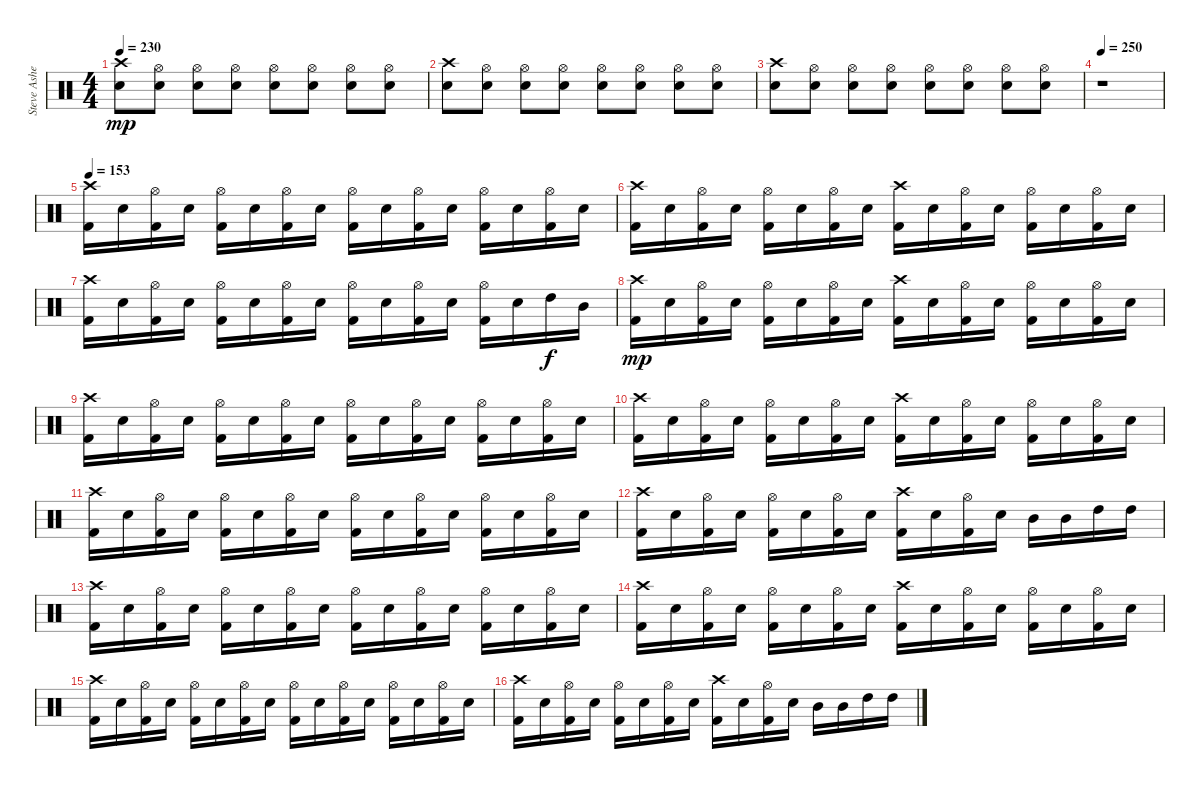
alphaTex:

\track ("Steve Asheim" "Steve Ashe") {instrument percussion}
\staff {score}
\articulation defaults
\ts (4 4)
\tempo 230
\clef neutral
\ks c
("Crash high (hit)" "Electric Snare (hit)").8{dy mp} ("Hi-Hat (open)" "Electric Snare (hit)").8 ("Hi-Hat (open)" "Electric Snare (hit)").8 ("Hi-Hat (open)" "Electric Snare (hit)").8 ("Hi-Hat (open)" "Electric Snare (hit)").8 ("Hi-Hat (open)" "Electric Snare (hit)").8 ("Hi-Hat (open)" "Electric Snare (hit)").8 ("Hi-Hat (open)" "Electric Snare (hit)").8 |
("Crash high (hit)" "Electric Snare (hit)").8 ("Hi-Hat (open)" "Electric Snare (hit)").8 ("Hi-Hat (open)" "Electric Snare (hit)").8 ("Hi-Hat (open)" "Electric Snare (hit)").8 ("Hi-Hat (open)" "Electric Snare (hit)").8 ("Hi-Hat (open)" "Electric Snare (hit)").8 ("Hi-Hat (open)" "Electric Snare (hit)").8 ("Hi-Hat (open)" "Electric Snare (hit)").8 |
("Crash high (hit)" "Electric Snare (hit)").8 ("Hi-Hat (open)" "Electric Snare (hit)").8 ("Hi-Hat (open)" "Electric Snare (hit)").8 ("Hi-Hat (open)" "Electric Snare (hit)").8 ("Hi-Hat (open)" "Electric Snare (hit)").8 ("Hi-Hat (open)" "Electric Snare (hit)").8 ("Hi-Hat (open)" "Electric Snare (hit)").8 ("Hi-Hat (open)" "Electric Snare (hit)").8 |
\tempo 250
r.1 |
\tempo 153
("Crash high (hit)" "Kick (hit) 2").16 "Electric Snare (hit)".16 ("Hi-Hat (open)" "Kick (hit) 2").16 "Electric Snare (hit)".16 ("Hi-Hat (open)" "Kick (hit) 2").16 "Electric Snare (hit)".16 ("Hi-Hat (open)" "Kick (hit) 2").16 "Electric Snare (hit)".16 ("Hi-Hat (open)" "Kick (hit) 2").16 "Electric Snare (hit)".16 ("Hi-Hat (open)" "Kick (hit) 2").16 "Electric Snare (hit)".16 ("Hi-Hat (open)" "Kick (hit) 2").16 "Electric Snare (hit)".16 ("Hi-Hat (open)" "Kick (hit) 2").16 "Electric Snare (hit)".16 |
("Crash high (hit)" "Kick (hit) 2").16 "Electric Snare (hit)".16 ("Hi-Hat (open)" "Kick (hit) 2").16 "Electric Snare (hit)".16 ("Hi-Hat (open)" "Kick (hit) 2").16 "Electric Snare (hit)".16 ("Hi-Hat (open)" "Kick (hit) 2").16 "Electric Snare (hit)".16 ("Crash high (hit)" "Kick (hit) 2").16 "Electric Snare (hit)".16 ("Hi-Hat (open)" "Kick (hit) 2").16 "Electric Snare (hit)".16 ("Hi-Hat (open)" "Kick (hit) 2").16 "Electric Snare (hit)".16 ("Hi-Hat (open)" "Kick (hit) 2").16 "Electric Snare (hit)".16 |
("Crash high (hit)" "Kick (hit) 2").16 "Electric Snare (hit)".16 ("Hi-Hat (open)" "Kick (hit) 2").16 "Electric Snare (hit)".16 ("Hi-Hat (open)" "Kick (hit) 2").16 "Electric Snare (hit)".16 ("Hi-Hat (open)" "Kick (hit) 2").16 "Electric Snare (hit)".16 ("Hi-Hat (open)" "Kick (hit) 2").16 "Electric Snare (hit)".16 ("Hi-Hat (open)" "Kick (hit) 2").16 "Electric Snare (hit)".16 ("Hi-Hat (open)" "Kick (hit) 2").16 "Electric Snare (hit)".16 "High Tom (hit)".16{dy f} "Mid Tom (hit)".16 |
("Crash high (hit)" "Kick (hit) 2").16{dy mp} "Electric Snare (hit)".16 ("Hi-Hat (open)" "Kick (hit) 2").16 "Electric Snare (hit)".16 ("Hi-Hat (open)" "Kick (hit) 2").16 "Electric Snare (hit)".16 ("Hi-Hat (open)" "Kick (hit) 2").16 "Electric Snare (hit)".16 ("Crash high (hit)" "Kick (hit) 2").16 "Electric Snare (hit)".16 ("Hi-Hat (open)" "Kick (hit) 2").16 "Electric Snare (hit)".16 ("Hi-Hat (open)" "Kick (hit) 2").16 "Electric Snare (hit)".16 ("Hi-Hat (open)" "Kick (hit) 2").16 "Electric Snare (hit)".16 |
("Crash high (hit)" "Kick (hit) 2").16 "Electric Snare (hit)".16 ("Hi-Hat (open)" "Kick (hit) 2").16 "Electric Snare (hit)".16 ("Hi-Hat (open)" "Kick (hit) 2").16 "Electric Snare (hit)".16 ("Hi-Hat (open)" "Kick (hit) 2").16 "Electric Snare (hit)".16 ("Hi-Hat (open)" "Kick (hit) 2").16 "Electric Snare (hit)".16 ("Hi-Hat (open)" "Kick (hit) 2").16 "Electric Snare (hit)".16 ("Hi-Hat (open)" "Kick (hit) 2").16 "Electric Snare (hit)".16 ("Hi-Hat (open)" "Kick (hit) 2").16 "Electric Snare (hit)".16 |
("Crash high (hit)" "Kick (hit) 2").16 "Electric Snare (hit)".16 ("Hi-Hat (open)" "Kick (hit) 2").16 "Electric Snare (hit)".16 ("Hi-Hat (open)" "Kick (hit) 2").16 "Electric Snare (hit)".16 ("Hi-Hat (open)" "Kick (hit) 2").16 "Electric Snare (hit)".16 ("Crash high (hit)" "Kick (hit) 2").16 "Electric Snare (hit)".16 ("Hi-Hat (open)" "Kick (hit) 2").16 "Electric Snare (hit)".16 ("Hi-Hat (open)" "Kick (hit) 2").16 "Electric Snare (hit)".16 ("Hi-Hat (open)" "Kick (hit) 2").16 "Electric Snare (hit)".16 |
("Crash high (hit)" "Kick (hit) 2").16 "Electric Snare (hit)".16 ("Hi-Hat (open)" "Kick (hit) 2").16 "Electric Snare (hit)".16 ("Hi-Hat (open)" "Kick (hit) 2").16 "Electric Snare (hit)".16 ("Hi-Hat (open)" "Kick (hit) 2").16 "Electric Snare (hit)".16 ("Hi-Hat (open)" "Kick (hit) 2").16 "Electric Snare (hit)".16 ("Hi-Hat (open)" "Kick (hit) 2").16 "Electric Snare (hit)".16 ("Hi-Hat (open)" "Kick (hit) 2").16 "Electric Snare (hit)".16 ("Hi-Hat (open)" "Kick (hit) 2").16 "Electric Snare (hit)".16 |
("Crash high (hit)" "Kick (hit) 2").16 "Electric Snare (hit)".16 ("Hi-Hat (open)" "Kick (hit) 2").16 "Electric Snare (hit)".16 ("Hi-Hat (open)" "Kick (hit) 2").16 "Electric Snare (hit)".16 ("Hi-Hat (open)" "Kick (hit) 2").16 "Electric Snare (hit)".16 ("Crash high (hit)" "Kick (hit) 2").16 "Electric Snare (hit)".16 ("Hi-Hat (open)" "Kick (hit) 2").16 "Electric Snare (hit)".16 "Mid Tom (hit)".16 "Mid Tom (hit)".16 "High Tom (hit)".16 "High Tom (hit)".16 |
("Crash high (hit)" "Kick (hit) 2").16 "Electric Snare (hit)".16 ("Hi-Hat (open)" "Kick (hit) 2").16 "Electric Snare (hit)".16 ("Hi-Hat (open)" "Kick (hit) 2").16 "Electric Snare (hit)".16 ("Hi-Hat (open)" "Kick (hit) 2").16 "Electric Snare (hit)".16 ("Hi-Hat (open)" "Kick (hit) 2").16 "Electric Snare (hit)".16 ("Hi-Hat (open)" "Kick (hit) 2").16 "Electric Snare (hit)".16 ("Hi-Hat (open)" "Kick (hit) 2").16 "Electric Snare (hit)".16 ("Hi-Hat (open)" "Kick (hit) 2").16 "Electric Snare (hit)".16 |
("Crash high (hit)" "Kick (hit) 2").16 "Electric Snare (hit)".16 ("Hi-Hat (open)" "Kick (hit) 2").16 "Electric Snare (hit)".16 ("Hi-Hat (open)" "Kick (hit) 2").16 "Electric Snare (hit)".16 ("Hi-Hat (open)" "Kick (hit) 2").16 "Electric Snare (hit)".16 ("Crash high (hit)" "Kick (hit) 2").16 "Electric Snare (hit)".16 ("Hi-Hat (open)" "Kick (hit) 2").16 "Electric Snare (hit)".16 ("Hi-Hat (open)" "Kick (hit) 2").16 "Electric Snare (hit)".16 ("Hi-Hat (open)" "Kick (hit) 2").16 "Electric Snare (hit)".16 |
("Crash high (hit)" "Kick (hit) 2").16 "Electric Snare (hit)".16 ("Hi-Hat (open)" "Kick (hit) 2").16 "Electric Snare (hit)".16 ("Hi-Hat (open)" "Kick (hit) 2").16 "Electric Snare (hit)".16 ("Hi-Hat (open)" "Kick (hit) 2").16 "Electric Snare (hit)".16 ("Hi-Hat (open)" "Kick (hit) 2").16 "Electric Snare (hit)".16 ("Hi-Hat (open)" "Kick (hit) 2").16 "Electric Snare (hit)".16 ("Hi-Hat (open)" "Kick (hit) 2").16 "Electric Snare (hit)".16 ("Hi-Hat (open)" "Kick (hit) 2").16 "Electric Snare (hit)".16 |
("Crash high (hit)" "Kick (hit) 2").16 "Electric Snare (hit)".16 ("Hi-Hat (open)" "Kick (hit) 2").16 "Electric Snare (hit)".16 ("Hi-Hat (open)" "Kick (hit) 2").16 "Electric Snare (hit)".16 ("Hi-Hat (open)" "Kick (hit) 2").16 "Electric Snare (hit)".16 ("Crash high (hit)" "Kick (hit) 2").16 "Electric Snare (hit)".16 ("Hi-Hat (open)" "Kick (hit) 2").16 "Electric Snare (hit)".16 "Mid Tom (hit)".16 "Mid Tom (hit)".16 "High Tom (hit)".16 "High Tom (hit)".16
